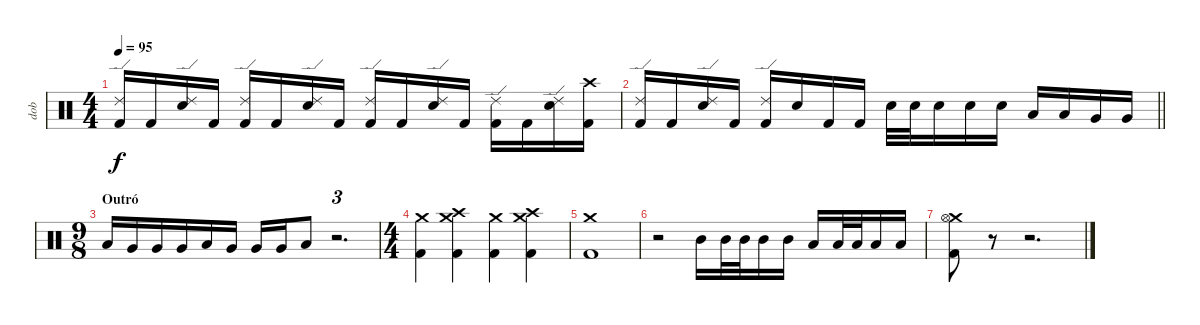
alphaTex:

\track ("dob" "dob") {instrument percussion}
\staff {score}
\articulation defaults
\ts (4 4)
\tempo 95
\clef neutral
\ks c
("Ride (edge) 2" "Kick (hit) 2").16{dy f} "Kick (hit) 2".16 ("Ride (edge) 2" "Electric Snare (hit)").16 "Kick (hit) 2".16 ("Ride (edge) 2" "Kick (hit) 2").16 "Kick (hit) 2".16 ("Ride (edge) 2" "Electric Snare (hit)").16 "Kick (hit) 2".16 ("Ride (edge) 2" "Kick (hit) 2").16 "Kick (hit) 2".16 ("Ride (edge) 2" "Electric Snare (hit)").16 "Kick (hit) 2".16 ("Ride (edge) 2" "Kick (hit) 2").16 "Kick (hit) 2".16 ("Ride (edge) 2" "Electric Snare (hit)").16 ("Crash high (hit)" "Kick (hit) 2").16 |
\barLineRight lightlight
("Ride (edge) 2" "Kick (hit) 2").16 "Kick (hit) 2".16 ("Ride (edge) 2" "Electric Snare (hit)").16 "Kick (hit) 2".16 ("Ride (edge) 2" "Kick (hit) 2").16 "Electric Snare (hit)".16 "Kick (hit) 2".16 "Kick (hit) 2".16 "Electric Snare (hit)".32 "Electric Snare (hit)".32 "Electric Snare (hit)".16 "Electric Snare (hit)".16 "Electric Snare (hit)".16 "Low Tom (hit)".16 "Low Tom (hit)".16 "Very Low Tom (hit)".16 "Very Low Tom (hit)".16 |
\ts (9 8)
\section ("" "Outró")
"Low Tom (hit)".16 "Very Low Tom (hit)".16 "Very Low Tom (hit)".16 "Very Low Tom (hit)".16 "Low Tom (hit)".16 "Very Low Tom (hit)".16 "Very Low Tom (hit)".16 "Very Low Tom (hit)".16 "Low Tom (hit)".8 r.2{d tu (3 2)} |
\ts (4 4)
("Kick (hit) 2" "Crash medium (hit)").4 ("Kick (hit) 2" "Crash high (hit)" "Crash medium (hit)").4 ("Kick (hit) 2" "Crash medium (hit)").4 ("Kick (hit) 2" "Crash high (hit)" "Crash medium (hit)").4 |
("Kick (hit) 2" "Crash medium (hit)").1 |
r.2 "Mid Tom (hit)".16 "Mid Tom (hit)".32 "Mid Tom (hit)".32 "Mid Tom (hit)".16 "Mid Tom (hit)".16 "Low Tom (hit)".16 "Low Tom (hit)".32 "Low Tom (hit)".32 "Low Tom (hit)".16 "Low Tom (hit)".16 |
("Kick (hit) 2" "Crash medium (hit)" "Hi-Hat (open)").8 r.8 r.2{d}
